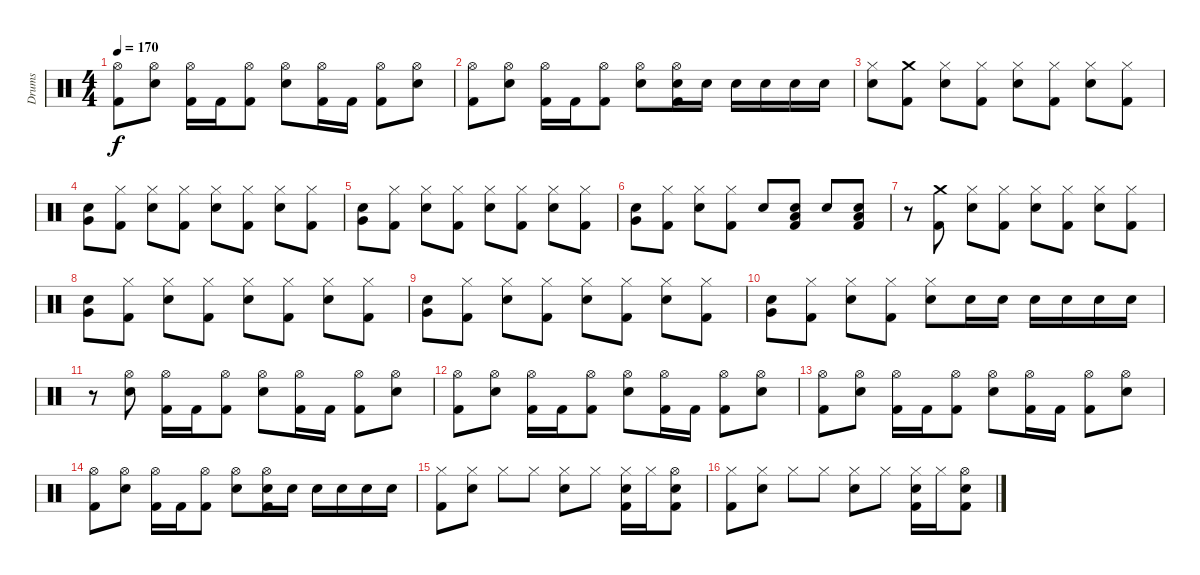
\track ("Drums" "Drums") {instrument percussion}
\staff {score}
\articulation defaults
\ts (4 4)
\tempo 170
\clef neutral
\ks c
("Hi-Hat (open)" "Kick (hit) 2").8{dy f} ("Hi-Hat (open)" "Snare (hit) 2").8 ("Hi-Hat (open)" "Kick (hit) 2").16 "Kick (hit) 2".16 ("Hi-Hat (open)" "Kick (hit) 2").8 ("Hi-Hat (open)" "Snare (hit) 2").8 ("Hi-Hat (open)" "Kick (hit) 2").16 "Kick (hit) 2".16 ("Hi-Hat (open)" "Kick (hit) 2").8 ("Hi-Hat (open)" "Snare (hit) 2").8 |
("Hi-Hat (open)" "Kick (hit) 2").8 ("Hi-Hat (open)" "Snare (hit) 2").8 ("Hi-Hat (open)" "Kick (hit) 2").16 "Kick (hit) 2".16 ("Hi-Hat (open)" "Kick (hit) 2").8 ("Hi-Hat (open)" "Snare (hit) 2").8 ("Hi-Hat (open)" "Snare (hit) 2" "Kick (hit) 2").16 "Snare (hit) 2".16 "Snare (hit) 2".16 "Snare (hit) 2".16 "Snare (hit) 2".16 "Snare (hit) 2".16 |
("Hi-Hat (closed)" "Snare (hit) 2").8 ("Crash medium (hit)" "Kick (hit) 2").8 ("Hi-Hat (closed)" "Snare (hit) 2").8 ("Hi-Hat (closed)" "Kick (hit) 2").8 ("Hi-Hat (closed)" "Snare (hit) 2").8 ("Hi-Hat (closed)" "Kick (hit) 2").8 ("Hi-Hat (closed)" "Snare (hit) 2").8 ("Hi-Hat (closed)" "Kick (hit) 2").8 |
("Very Low Tom (hit)" "Snare (hit) 2").8 ("Hi-Hat (closed)" "Kick (hit) 2").8 ("Hi-Hat (closed)" "Snare (hit) 2").8 ("Hi-Hat (closed)" "Kick (hit) 2").8 ("Hi-Hat (closed)" "Snare (hit) 2").8 ("Hi-Hat (closed)" "Kick (hit) 2").8 ("Hi-Hat (closed)" "Snare (hit) 2").8 ("Hi-Hat (closed)" "Kick (hit) 2").8 |
("Very Low Tom (hit)" "Snare (hit) 2").8 ("Hi-Hat (closed)" "Kick (hit) 2").8 ("Hi-Hat (closed)" "Snare (hit) 2").8 ("Hi-Hat (closed)" "Kick (hit) 2").8 ("Hi-Hat (closed)" "Snare (hit) 2").8 ("Hi-Hat (closed)" "Kick (hit) 2").8 ("Hi-Hat (closed)" "Snare (hit) 2").8 ("Hi-Hat (closed)" "Kick (hit) 2").8 |
("Very Low Tom (hit)" "Snare (hit) 2").8 ("Hi-Hat (closed)" "Kick (hit) 2").8 ("Hi-Hat (closed)" "Snare (hit) 2").8 ("Hi-Hat (closed)" "Kick (hit) 2").8 "Snare (hit) 2".8 ("Low Floor Tom (hit)" "Snare (hit) 2" "Kick (hit) 2").8 "Snare (hit) 2".8 ("Low Floor Tom (hit)" "Snare (hit) 2" "Kick (hit) 2").8 |
r.8 ("Crash medium (hit)" "Kick (hit) 2").8 ("Hi-Hat (closed)" "Snare (hit) 2").8 ("Hi-Hat (closed)" "Kick (hit) 2").8 ("Hi-Hat (closed)" "Snare (hit) 2").8 ("Hi-Hat (closed)" "Kick (hit) 2").8 ("Hi-Hat (closed)" "Snare (hit) 2").8 ("Hi-Hat (closed)" "Kick (hit) 2").8 |
("Very Low Tom (hit)" "Snare (hit) 2").8 ("Hi-Hat (closed)" "Kick (hit) 2").8 ("Hi-Hat (closed)" "Snare (hit) 2").8 ("Hi-Hat (closed)" "Kick (hit) 2").8 ("Hi-Hat (closed)" "Snare (hit) 2").8 ("Hi-Hat (closed)" "Kick (hit) 2").8 ("Hi-Hat (closed)" "Snare (hit) 2").8 ("Hi-Hat (closed)" "Kick (hit) 2").8 |
("Very Low Tom (hit)" "Snare (hit) 2").8 ("Hi-Hat (closed)" "Kick (hit) 2").8 ("Hi-Hat (closed)" "Snare (hit) 2").8 ("Hi-Hat (closed)" "Kick (hit) 2").8 ("Hi-Hat (closed)" "Snare (hit) 2").8 ("Hi-Hat (closed)" "Kick (hit) 2").8 ("Hi-Hat (closed)" "Snare (hit) 2").8 ("Hi-Hat (closed)" "Kick (hit) 2").8 |
("Very Low Tom (hit)" "Snare (hit) 2").8 ("Hi-Hat (closed)" "Kick (hit) 2").8 ("Hi-Hat (closed)" "Snare (hit) 2").8 ("Hi-Hat (closed)" "Kick (hit) 2").8 ("Hi-Hat (closed)" "Snare (hit) 2").8 "Snare (hit) 2".16 "Snare (hit) 2".16 "Snare (hit) 2".16 "Snare (hit) 2".16 "Snare (hit) 2".16 "Snare (hit) 2".16 |
r.8 ("Hi-Hat (open)" "Snare (hit) 2").8 ("Hi-Hat (open)" "Kick (hit) 2").16 "Kick (hit) 2".16 ("Hi-Hat (open)" "Kick (hit) 2").8 ("Hi-Hat (open)" "Snare (hit) 2").8 ("Hi-Hat (open)" "Kick (hit) 2").16 "Kick (hit) 2".16 ("Hi-Hat (open)" "Kick (hit) 2").8 ("Hi-Hat (open)" "Snare (hit) 2").8 |
("Hi-Hat (open)" "Kick (hit) 2").8 ("Hi-Hat (open)" "Snare (hit) 2").8 ("Hi-Hat (open)" "Kick (hit) 2").16 "Kick (hit) 2".16 ("Hi-Hat (open)" "Kick (hit) 2").8 ("Hi-Hat (open)" "Snare (hit) 2").8 ("Hi-Hat (open)" "Kick (hit) 2").16 "Kick (hit) 2".16 ("Hi-Hat (open)" "Kick (hit) 2").8 ("Hi-Hat (open)" "Snare (hit) 2").8 |
("Hi-Hat (open)" "Kick (hit) 2").8 ("Hi-Hat (open)" "Snare (hit) 2").8 ("Hi-Hat (open)" "Kick (hit) 2").16 "Kick (hit) 2".16 ("Hi-Hat (open)" "Kick (hit) 2").8 ("Hi-Hat (open)" "Snare (hit) 2").8 ("Hi-Hat (open)" "Kick (hit) 2").16 "Kick (hit) 2".16 ("Hi-Hat (open)" "Kick (hit) 2").8 ("Hi-Hat (open)" "Snare (hit) 2").8 |
("Hi-Hat (open)" "Kick (hit) 2").8 ("Hi-Hat (open)" "Snare (hit) 2").8 ("Hi-Hat (open)" "Kick (hit) 2").16 "Kick (hit) 2".16 ("Hi-Hat (open)" "Kick (hit) 2").8 ("Hi-Hat (open)" "Snare (hit) 2").8 ("Hi-Hat (open)" "Snare (hit) 2" "Kick (hit) 2").16 "Snare (hit) 2".16 "Snare (hit) 2".16 "Snare (hit) 2".16 "Snare (hit) 2".16 "Snare (hit) 2".16 |
("Hi-Hat (closed)" "Kick (hit) 2").8 ("Hi-Hat (closed)" "Snare (hit) 2").8 "Hi-Hat (closed)".8 "Hi-Hat (closed)".8 ("Hi-Hat (closed)" "Snare (hit) 2").8 "Hi-Hat (closed)".8 ("Hi-Hat (closed)" "Snare (hit) 2" "Kick (hit) 2").16 "Hi-Hat (closed)".16 ("Hi-Hat (open)" "Snare (hit) 2" "Kick (hit) 2").8 |
("Hi-Hat (closed)" "Kick (hit) 2").8 ("Hi-Hat (closed)" "Snare (hit) 2").8 "Hi-Hat (closed)".8 "Hi-Hat (closed)".8 ("Hi-Hat (closed)" "Snare (hit) 2").8 "Hi-Hat (closed)".8 ("Hi-Hat (closed)" "Snare (hit) 2" "Kick (hit) 2").16 "Hi-Hat (closed)".16 ("Hi-Hat (open)" "Snare (hit) 2" "Kick (hit) 2").8
